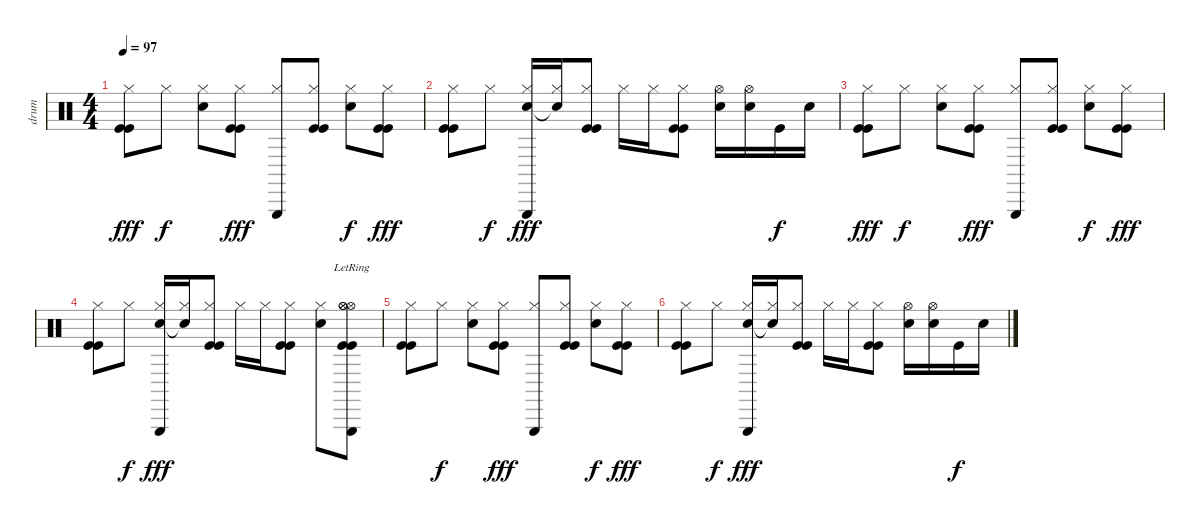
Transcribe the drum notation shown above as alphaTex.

\track ("drum" "drum") {instrument percussion}
\staff {score}
\articulation defaults
\ts (4 4)
\tempo 97
\clef neutral
\ks c
("Hi-Hat (closed)" "Kick (hit)" "Kick (hit)").8{dy fff} "Hi-Hat (closed)".8{dy f} ("Hi-Hat (closed)" "Electric Snare (hit)").8 ("Hi-Hat (closed)" "Kick (hit)" "Kick (hit)").8{dy fff} ("Hi-Hat (closed)" "Triangle (hit)").8 ("Hi-Hat (closed)" "Kick (hit)" "Kick (hit)").8 ("Hi-Hat (closed)" "Electric Snare (hit)").8{dy f} ("Hi-Hat (closed)" "Kick (hit)" "Kick (hit)").8{dy fff} |
("Hi-Hat (closed)" "Kick (hit)" "Kick (hit)").8 "Hi-Hat (closed)".8{dy f} ("Hi-Hat (closed)" "Electric Snare (hit)" "Triangle (hit)").16{dy fff} ("Hi-Hat (closed)" "Snare (hit)"{t}).16 ("Hi-Hat (closed)" "Kick (hit)" "Kick (hit)").8 "Hi-Hat (closed)".16 "Hi-Hat (closed)".16 ("Hi-Hat (closed)" "Kick (hit)" "Kick (hit)").8 ("Hi-Hat (open)" "Electric Snare (hit)").16 ("Hi-Hat (open)" "Electric Snare (hit)").16 "Kick (hit)".16{dy f} "Electric Snare (hit)".16 |
("Hi-Hat (closed)" "Kick (hit)" "Kick (hit)").8{dy fff} "Hi-Hat (closed)".8{dy f} ("Hi-Hat (closed)" "Electric Snare (hit)").8 ("Hi-Hat (closed)" "Kick (hit)" "Kick (hit)").8{dy fff} ("Hi-Hat (closed)" "Triangle (hit)").8 ("Hi-Hat (closed)" "Kick (hit)" "Kick (hit)").8 ("Hi-Hat (closed)" "Electric Snare (hit)").8{dy f} ("Hi-Hat (closed)" "Kick (hit)" "Kick (hit)").8{dy fff} |
("Hi-Hat (closed)" "Kick (hit)" "Kick (hit)").8 "Hi-Hat (closed)".8{dy f} ("Hi-Hat (closed)" "Electric Snare (hit)" "Triangle (hit)").16{dy fff} ("Hi-Hat (closed)" "Snare (hit)"{t}).16 ("Hi-Hat (closed)" "Kick (hit)" "Kick (hit)").8 "Hi-Hat (closed)".16 "Hi-Hat (closed)".16 ("Hi-Hat (closed)" "Kick (hit)" "Kick (hit)").8 ("Hi-Hat (closed)" "Electric Snare (hit)").8 ("Hi-Hat (open)" "Hi-Hat (open)" "Hi-Hat (open)" "Triangle (hit)"{lr} "Kick (hit)" "Kick (hit)").8 |
("Hi-Hat (closed)" "Kick (hit)" "Kick (hit)").8 "Hi-Hat (closed)".8{dy f} ("Hi-Hat (closed)" "Electric Snare (hit)").8 ("Hi-Hat (closed)" "Kick (hit)" "Kick (hit)").8{dy fff} ("Hi-Hat (closed)" "Triangle (hit)").8 ("Hi-Hat (closed)" "Kick (hit)" "Kick (hit)").8 ("Hi-Hat (closed)" "Electric Snare (hit)").8{dy f} ("Hi-Hat (closed)" "Kick (hit)" "Kick (hit)").8{dy fff} |
("Hi-Hat (closed)" "Kick (hit)" "Kick (hit)").8 "Hi-Hat (closed)".8{dy f} ("Hi-Hat (closed)" "Electric Snare (hit)" "Triangle (hit)").16{dy fff} ("Hi-Hat (closed)" "Snare (hit)"{t}).16 ("Hi-Hat (closed)" "Kick (hit)" "Kick (hit)").8 "Hi-Hat (closed)".16 "Hi-Hat (closed)".16 ("Hi-Hat (closed)" "Kick (hit)" "Kick (hit)").8 ("Hi-Hat (open)" "Electric Snare (hit)").16 ("Hi-Hat (open)" "Electric Snare (hit)").16 "Kick (hit)".16{dy f} "Electric Snare (hit)".16
